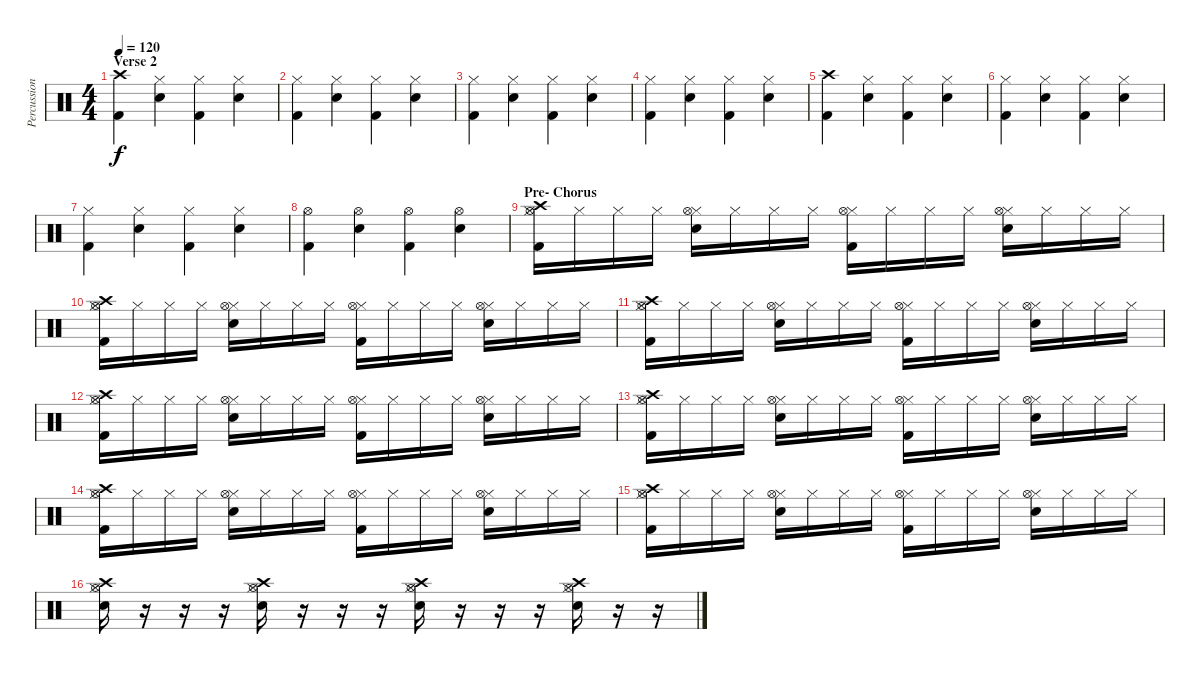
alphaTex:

\track ("Percussion" "Percussion") {instrument percussion}
\staff {score}
\articulation defaults
\ts (4 4)
\section ("" "Verse 2")
\tempo 120
\clef neutral
\ks c
("Crash high (hit)" "Kick (hit) 2").4{dy f} ("Hi-Hat (closed)" "Snare (hit) 2").4 ("Hi-Hat (closed)" "Kick (hit) 2").4 ("Hi-Hat (closed)" "Snare (hit) 2").4 |
("Hi-Hat (closed)" "Kick (hit) 2").4 ("Hi-Hat (closed)" "Snare (hit) 2").4 ("Hi-Hat (closed)" "Kick (hit) 2").4 ("Hi-Hat (closed)" "Snare (hit) 2").4 |
("Hi-Hat (closed)" "Kick (hit) 2").4 ("Hi-Hat (closed)" "Snare (hit) 2").4 ("Hi-Hat (closed)" "Kick (hit) 2").4 ("Hi-Hat (closed)" "Snare (hit) 2").4 |
("Hi-Hat (closed)" "Kick (hit) 2").4 ("Hi-Hat (closed)" "Snare (hit) 2").4 ("Hi-Hat (closed)" "Kick (hit) 2").4 ("Hi-Hat (closed)" "Snare (hit) 2").4 |
("Crash high (hit)" "Kick (hit) 2").4 ("Hi-Hat (closed)" "Snare (hit) 2").4 ("Hi-Hat (closed)" "Kick (hit) 2").4 ("Hi-Hat (closed)" "Snare (hit) 2").4 |
("Hi-Hat (closed)" "Kick (hit) 2").4 ("Hi-Hat (closed)" "Snare (hit) 2").4 ("Hi-Hat (closed)" "Kick (hit) 2").4 ("Hi-Hat (closed)" "Snare (hit) 2").4 |
("Hi-Hat (closed)" "Kick (hit) 2").4 ("Hi-Hat (closed)" "Snare (hit) 2").4 ("Hi-Hat (closed)" "Kick (hit) 2").4 ("Hi-Hat (closed)" "Snare (hit) 2").4 |
("Hi-Hat (open)" "Kick (hit) 2").4 ("Hi-Hat (open)" "Snare (hit) 2").4 ("Hi-Hat (open)" "Kick (hit) 2").4 ("Hi-Hat (open)" "Snare (hit) 2").4 |
\section ("" "Pre- Chorus")
("Hi-Hat (closed)" "Kick (hit) 2" "Crash high (hit)" "Hi-Hat (open)").16 "Hi-Hat (closed)".16 "Hi-Hat (closed)".16 "Hi-Hat (closed)".16 ("Hi-Hat (closed)" "Snare (hit) 2" "Hi-Hat (open)").16 "Hi-Hat (closed)".16 "Hi-Hat (closed)".16 "Hi-Hat (closed)".16 ("Hi-Hat (closed)" "Kick (hit) 2" "Hi-Hat (open)").16 "Hi-Hat (closed)".16 "Hi-Hat (closed)".16 "Hi-Hat (closed)".16 ("Hi-Hat (closed)" "Snare (hit) 2" "Hi-Hat (open)").16 "Hi-Hat (closed)".16 "Hi-Hat (closed)".16 "Hi-Hat (closed)".16 |
("Hi-Hat (closed)" "Kick (hit) 2" "Crash high (hit)" "Hi-Hat (open)").16 "Hi-Hat (closed)".16 "Hi-Hat (closed)".16 "Hi-Hat (closed)".16 ("Hi-Hat (closed)" "Snare (hit) 2" "Hi-Hat (open)").16 "Hi-Hat (closed)".16 "Hi-Hat (closed)".16 "Hi-Hat (closed)".16 ("Hi-Hat (closed)" "Kick (hit) 2" "Hi-Hat (open)").16 "Hi-Hat (closed)".16 "Hi-Hat (closed)".16 "Hi-Hat (closed)".16 ("Hi-Hat (closed)" "Snare (hit) 2" "Hi-Hat (open)").16 "Hi-Hat (closed)".16 "Hi-Hat (closed)".16 "Hi-Hat (closed)".16 |
("Hi-Hat (closed)" "Kick (hit) 2" "Crash high (hit)" "Hi-Hat (open)").16 "Hi-Hat (closed)".16 "Hi-Hat (closed)".16 "Hi-Hat (closed)".16 ("Hi-Hat (closed)" "Snare (hit) 2" "Hi-Hat (open)").16 "Hi-Hat (closed)".16 "Hi-Hat (closed)".16 "Hi-Hat (closed)".16 ("Hi-Hat (closed)" "Kick (hit) 2" "Hi-Hat (open)").16 "Hi-Hat (closed)".16 "Hi-Hat (closed)".16 "Hi-Hat (closed)".16 ("Hi-Hat (closed)" "Snare (hit) 2" "Hi-Hat (open)").16 "Hi-Hat (closed)".16 "Hi-Hat (closed)".16 "Hi-Hat (closed)".16 |
("Hi-Hat (closed)" "Kick (hit) 2" "Crash high (hit)" "Hi-Hat (open)").16 "Hi-Hat (closed)".16 "Hi-Hat (closed)".16 "Hi-Hat (closed)".16 ("Hi-Hat (closed)" "Snare (hit) 2" "Hi-Hat (open)").16 "Hi-Hat (closed)".16 "Hi-Hat (closed)".16 "Hi-Hat (closed)".16 ("Hi-Hat (closed)" "Kick (hit) 2" "Hi-Hat (open)").16 "Hi-Hat (closed)".16 "Hi-Hat (closed)".16 "Hi-Hat (closed)".16 ("Hi-Hat (closed)" "Snare (hit) 2" "Hi-Hat (open)").16 "Hi-Hat (closed)".16 "Hi-Hat (closed)".16 "Hi-Hat (closed)".16 |
("Hi-Hat (closed)" "Kick (hit) 2" "Crash high (hit)" "Hi-Hat (open)").16 "Hi-Hat (closed)".16 "Hi-Hat (closed)".16 "Hi-Hat (closed)".16 ("Hi-Hat (closed)" "Snare (hit) 2" "Hi-Hat (open)").16 "Hi-Hat (closed)".16 "Hi-Hat (closed)".16 "Hi-Hat (closed)".16 ("Hi-Hat (closed)" "Kick (hit) 2" "Hi-Hat (open)").16 "Hi-Hat (closed)".16 "Hi-Hat (closed)".16 "Hi-Hat (closed)".16 ("Hi-Hat (closed)" "Snare (hit) 2" "Hi-Hat (open)").16 "Hi-Hat (closed)".16 "Hi-Hat (closed)".16 "Hi-Hat (closed)".16 |
("Hi-Hat (closed)" "Kick (hit) 2" "Crash high (hit)" "Hi-Hat (open)").16 "Hi-Hat (closed)".16 "Hi-Hat (closed)".16 "Hi-Hat (closed)".16 ("Hi-Hat (closed)" "Snare (hit) 2" "Hi-Hat (open)").16 "Hi-Hat (closed)".16 "Hi-Hat (closed)".16 "Hi-Hat (closed)".16 ("Hi-Hat (closed)" "Kick (hit) 2" "Hi-Hat (open)").16 "Hi-Hat (closed)".16 "Hi-Hat (closed)".16 "Hi-Hat (closed)".16 ("Hi-Hat (closed)" "Snare (hit) 2" "Hi-Hat (open)").16 "Hi-Hat (closed)".16 "Hi-Hat (closed)".16 "Hi-Hat (closed)".16 |
("Hi-Hat (closed)" "Kick (hit) 2" "Crash high (hit)" "Hi-Hat (open)").16 "Hi-Hat (closed)".16 "Hi-Hat (closed)".16 "Hi-Hat (closed)".16 ("Hi-Hat (closed)" "Snare (hit) 2" "Hi-Hat (open)").16 "Hi-Hat (closed)".16 "Hi-Hat (closed)".16 "Hi-Hat (closed)".16 ("Hi-Hat (closed)" "Kick (hit) 2" "Hi-Hat (open)").16 "Hi-Hat (closed)".16 "Hi-Hat (closed)".16 "Hi-Hat (closed)".16 ("Hi-Hat (closed)" "Snare (hit) 2" "Hi-Hat (open)").16 "Hi-Hat (closed)".16 "Hi-Hat (closed)".16 "Hi-Hat (closed)".16 |
("Hi-Hat (closed)" "Snare (hit) 2" "Crash high (hit)" "Hi-Hat (open)").16 r.16 r.16 r.16 ("Hi-Hat (closed)" "Snare (hit) 2" "Crash high (hit)" "Hi-Hat (open)").16 r.16 r.16 r.16 ("Hi-Hat (closed)" "Snare (hit) 2" "Crash high (hit)" "Hi-Hat (open)").16 r.16 r.16 r.16 ("Hi-Hat (closed)" "Snare (hit) 2" "Crash high (hit)" "Hi-Hat (open)").16 r.16 r.16
